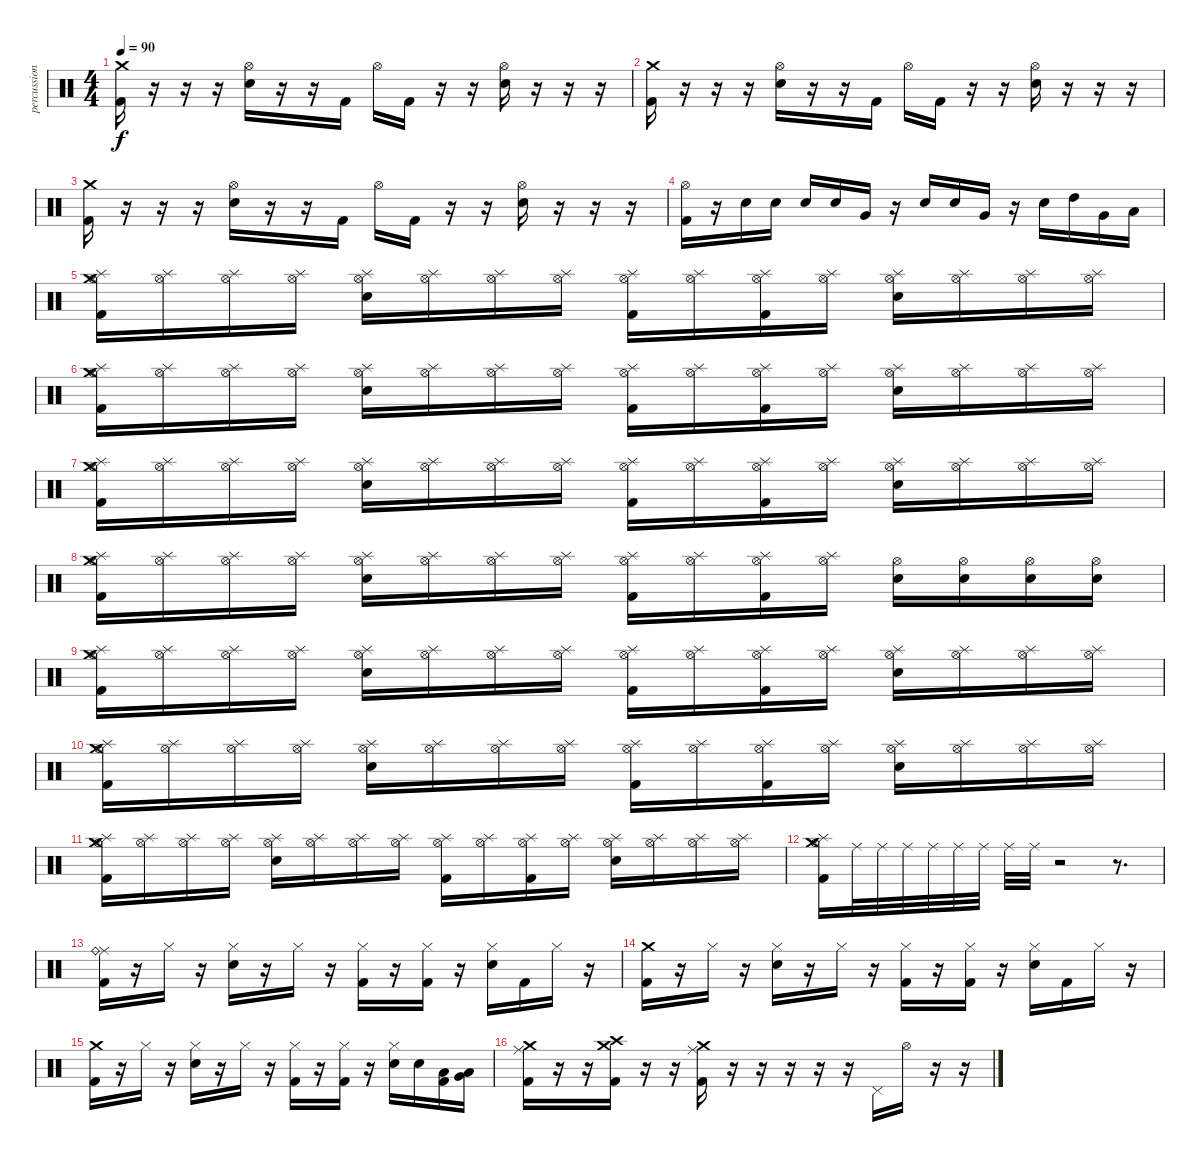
\track ("percussion - longineu" "percussion") {instrument percussion}
\staff {score}
\articulation defaults
\ts (4 4)
\tempo 90
\clef neutral
\ks c
("Crash medium (hit)" "Kick (hit) 2").16{dy f} r.16 r.16 r.16 ("Hi-Hat (open)" "Snare (hit) 2").16 r.16 r.16 "Kick (hit) 2".16 "Hi-Hat (open)".16 "Kick (hit) 2".16 r.16 r.16 ("Hi-Hat (open)" "Snare (hit) 2").16 r.16 r.16 r.16 |
("Crash medium (hit)" "Kick (hit) 2").16 r.16 r.16 r.16 ("Hi-Hat (open)" "Snare (hit) 2").16 r.16 r.16 "Kick (hit) 2".16 "Hi-Hat (open)".16 "Kick (hit) 2".16 r.16 r.16 ("Hi-Hat (open)" "Snare (hit) 2").16 r.16 r.16 r.16 |
("Crash medium (hit)" "Kick (hit) 2").16 r.16 r.16 r.16 ("Hi-Hat (open)" "Snare (hit) 2").16 r.16 r.16 "Kick (hit) 2".16 "Hi-Hat (open)".16 "Kick (hit) 2".16 r.16 r.16 ("Hi-Hat (open)" "Snare (hit) 2").16 r.16 r.16 r.16 |
("Hi-Hat (open)" "Kick (hit) 2").16 r.16 "Electric Snare (hit)".16 "Electric Snare (hit)".16 "Electric Snare (hit)".16 "Electric Snare (hit)".16 "Very Low Tom (hit)".16 r.16 "Electric Snare (hit)".16 "Electric Snare (hit)".16 "Very Low Tom (hit)".16 r.16 "Electric Snare (hit)".16 "High Tom (hit)".16 "Very Low Tom (hit)".16 "Low Floor Tom (hit)".16 |
("Splash (hit)" "Hi-Hat (open)" "Crash medium (hit)" "Kick (hit) 2").16 ("Splash (hit)" "Hi-Hat (open)").16 ("Splash (hit)" "Hi-Hat (open)").16 ("Splash (hit)" "Hi-Hat (open)").16 ("Splash (hit)" "Hi-Hat (open)" "Electric Snare (hit)").16 ("Splash (hit)" "Hi-Hat (open)").16 ("Splash (hit)" "Hi-Hat (open)").16 ("Splash (hit)" "Hi-Hat (open)").16 ("Splash (hit)" "Hi-Hat (open)" "Kick (hit) 2").16 ("Splash (hit)" "Hi-Hat (open)").16 ("Splash (hit)" "Hi-Hat (open)" "Kick (hit) 2").16 ("Splash (hit)" "Hi-Hat (open)").16 ("Splash (hit)" "Hi-Hat (open)" "Electric Snare (hit)").16 ("Splash (hit)" "Hi-Hat (open)").16 ("Splash (hit)" "Hi-Hat (open)").16 ("Splash (hit)" "Hi-Hat (open)").16 |
("Splash (hit)" "Hi-Hat (open)" "Crash medium (hit)" "Kick (hit) 2").16 ("Splash (hit)" "Hi-Hat (open)").16 ("Splash (hit)" "Hi-Hat (open)").16 ("Splash (hit)" "Hi-Hat (open)").16 ("Splash (hit)" "Hi-Hat (open)" "Electric Snare (hit)").16 ("Splash (hit)" "Hi-Hat (open)").16 ("Splash (hit)" "Hi-Hat (open)").16 ("Splash (hit)" "Hi-Hat (open)").16 ("Splash (hit)" "Hi-Hat (open)" "Kick (hit) 2").16 ("Splash (hit)" "Hi-Hat (open)").16 ("Splash (hit)" "Hi-Hat (open)" "Kick (hit) 2").16 ("Splash (hit)" "Hi-Hat (open)").16 ("Splash (hit)" "Hi-Hat (open)" "Electric Snare (hit)").16 ("Splash (hit)" "Hi-Hat (open)").16 ("Splash (hit)" "Hi-Hat (open)").16 ("Splash (hit)" "Hi-Hat (open)").16 |
("Splash (hit)" "Hi-Hat (open)" "Crash medium (hit)" "Kick (hit) 2").16 ("Splash (hit)" "Hi-Hat (open)").16 ("Splash (hit)" "Hi-Hat (open)").16 ("Splash (hit)" "Hi-Hat (open)").16 ("Splash (hit)" "Hi-Hat (open)" "Electric Snare (hit)").16 ("Splash (hit)" "Hi-Hat (open)").16 ("Splash (hit)" "Hi-Hat (open)").16 ("Splash (hit)" "Hi-Hat (open)").16 ("Splash (hit)" "Hi-Hat (open)" "Kick (hit) 2").16 ("Splash (hit)" "Hi-Hat (open)").16 ("Splash (hit)" "Hi-Hat (open)" "Kick (hit) 2").16 ("Splash (hit)" "Hi-Hat (open)").16 ("Splash (hit)" "Hi-Hat (open)" "Electric Snare (hit)").16 ("Splash (hit)" "Hi-Hat (open)").16 ("Splash (hit)" "Hi-Hat (open)").16 ("Splash (hit)" "Hi-Hat (open)").16 |
("Splash (hit)" "Hi-Hat (open)" "Crash medium (hit)" "Kick (hit) 2").16 ("Splash (hit)" "Hi-Hat (open)").16 ("Splash (hit)" "Hi-Hat (open)").16 ("Splash (hit)" "Hi-Hat (open)").16 ("Splash (hit)" "Hi-Hat (open)" "Electric Snare (hit)").16 ("Splash (hit)" "Hi-Hat (open)").16 ("Splash (hit)" "Hi-Hat (open)").16 ("Splash (hit)" "Hi-Hat (open)").16 ("Splash (hit)" "Hi-Hat (open)" "Kick (hit) 2").16 ("Splash (hit)" "Hi-Hat (open)").16 ("Splash (hit)" "Hi-Hat (open)" "Kick (hit) 2").16 ("Splash (hit)" "Hi-Hat (open)").16 ("Hi-Hat (open)" "Electric Snare (hit)").16 ("Hi-Hat (open)" "Electric Snare (hit)").16 ("Hi-Hat (open)" "Electric Snare (hit)").16 ("Hi-Hat (open)" "Electric Snare (hit)").16 |
("Splash (hit)" "Hi-Hat (open)" "Crash medium (hit)" "Kick (hit) 2").16 ("Splash (hit)" "Hi-Hat (open)").16 ("Splash (hit)" "Hi-Hat (open)").16 ("Splash (hit)" "Hi-Hat (open)").16 ("Splash (hit)" "Hi-Hat (open)" "Electric Snare (hit)").16 ("Splash (hit)" "Hi-Hat (open)").16 ("Splash (hit)" "Hi-Hat (open)").16 ("Splash (hit)" "Hi-Hat (open)").16 ("Splash (hit)" "Hi-Hat (open)" "Kick (hit) 2").16 ("Splash (hit)" "Hi-Hat (open)").16 ("Splash (hit)" "Hi-Hat (open)" "Kick (hit) 2").16 ("Splash (hit)" "Hi-Hat (open)").16 ("Splash (hit)" "Hi-Hat (open)" "Electric Snare (hit)").16 ("Splash (hit)" "Hi-Hat (open)").16 ("Splash (hit)" "Hi-Hat (open)").16 ("Splash (hit)" "Hi-Hat (open)").16 |
("Splash (hit)" "Hi-Hat (open)" "Crash medium (hit)" "Kick (hit) 2").16 ("Splash (hit)" "Hi-Hat (open)").16 ("Splash (hit)" "Hi-Hat (open)").16 ("Splash (hit)" "Hi-Hat (open)").16 ("Splash (hit)" "Hi-Hat (open)" "Electric Snare (hit)").16 ("Splash (hit)" "Hi-Hat (open)").16 ("Splash (hit)" "Hi-Hat (open)").16 ("Splash (hit)" "Hi-Hat (open)").16 ("Splash (hit)" "Hi-Hat (open)" "Kick (hit) 2").16 ("Splash (hit)" "Hi-Hat (open)").16 ("Splash (hit)" "Hi-Hat (open)" "Kick (hit) 2").16 ("Splash (hit)" "Hi-Hat (open)").16 ("Splash (hit)" "Hi-Hat (open)" "Electric Snare (hit)").16 ("Splash (hit)" "Hi-Hat (open)").16 ("Splash (hit)" "Hi-Hat (open)").16 ("Splash (hit)" "Hi-Hat (open)").16 |
("Splash (hit)" "Hi-Hat (open)" "Crash medium (hit)" "Kick (hit) 2").16 ("Splash (hit)" "Hi-Hat (open)").16 ("Splash (hit)" "Hi-Hat (open)").16 ("Splash (hit)" "Hi-Hat (open)").16 ("Splash (hit)" "Hi-Hat (open)" "Electric Snare (hit)").16 ("Splash (hit)" "Hi-Hat (open)").16 ("Splash (hit)" "Hi-Hat (open)").16 ("Splash (hit)" "Hi-Hat (open)").16 ("Splash (hit)" "Hi-Hat (open)" "Kick (hit) 2").16 ("Splash (hit)" "Hi-Hat (open)").16 ("Splash (hit)" "Hi-Hat (open)" "Kick (hit) 2").16 ("Splash (hit)" "Hi-Hat (open)").16 ("Splash (hit)" "Hi-Hat (open)" "Electric Snare (hit)").16 ("Splash (hit)" "Hi-Hat (open)").16 ("Splash (hit)" "Hi-Hat (open)").16 ("Splash (hit)" "Hi-Hat (open)").16 |
("Splash (hit)" "Hi-Hat (open)" "Crash medium (hit)" "Kick (hit) 2").16 "Ride (middle)".32 "Ride (middle)".32 "Ride (middle)".32 "Ride (middle)".32 "Ride (middle)".32 "Ride (middle)".32 "Ride (middle)".32 "Ride (middle)".32 r.2 r.8{d} |
("Ride (middle)" "Ride (bell)" "Kick (hit) 2").16 r.16 "Hi-Hat (closed)".16 r.16 ("Hi-Hat (closed)" "Snare (hit) 2").16 r.16 "Hi-Hat (closed)".16 r.16 ("Hi-Hat (closed)" "Kick (hit) 2").16 r.16 ("Hi-Hat (closed)" "Kick (hit) 2").16 r.16 ("Hi-Hat (closed)" "Snare (hit) 2").16 "Kick (hit) 2".16 "Hi-Hat (closed)".16 r.16 |
("Crash medium (hit)" "Kick (hit) 2").16 r.16 "Hi-Hat (closed)".16 r.16 ("Hi-Hat (closed)" "Snare (hit) 2").16 r.16 "Hi-Hat (closed)".16 r.16 ("Hi-Hat (closed)" "Kick (hit) 2").16 r.16 ("Hi-Hat (closed)" "Kick (hit) 2").16 r.16 ("Hi-Hat (closed)" "Snare (hit) 2").16 "Kick (hit) 2".16 "Hi-Hat (closed)".16 r.16 |
("Crash medium (hit)" "Kick (hit) 2").16 r.16 "Hi-Hat (closed)".16 r.16 ("Hi-Hat (closed)" "Snare (hit) 2").16 r.16 "Hi-Hat (closed)".16 r.16 ("Hi-Hat (closed)" "Kick (hit) 2").16 r.16 ("Hi-Hat (closed)" "Kick (hit) 2").16 r.16 ("Hi-Hat (closed)" "Electric Snare (hit)").16 "Electric Snare (hit)".16 ("Low Tom (hit)" "Kick (hit) 2").16 ("Very Low Tom (hit)" "Low Tom (hit)").16 |
("Ride (middle)" "Crash medium (hit)" "Kick (hit) 2").16 r.16 r.16 ("Crash high (hit)" "Crash medium (hit)" "Kick (hit) 2").16 r.16 r.16 ("Ride (middle)" "Crash medium (hit)" "Kick (hit) 2").16 r.16 r.16 r.16 r.16 r.16 "Pedal Hi-Hat (hit)".16 "Hi-Hat (open)".16 r.16 r.16
